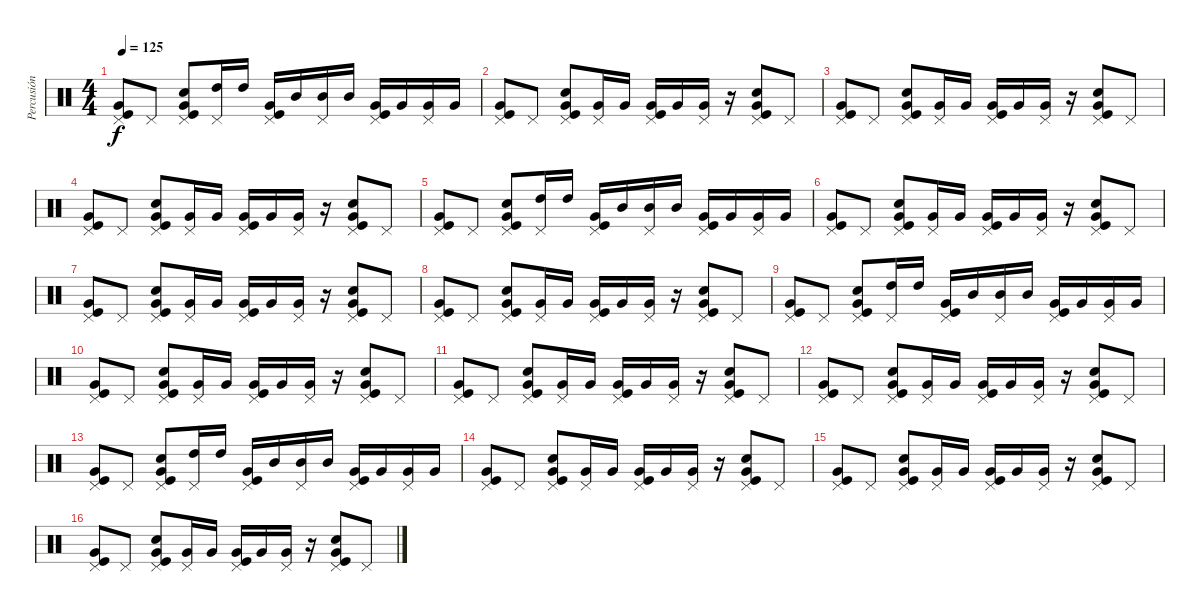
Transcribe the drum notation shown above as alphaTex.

\track ("Percusión" "Percusión") {instrument percussion}
\staff {score}
\articulation defaults
\ts (4 4)
\tempo 125
\clef neutral
\ks c
("Very Low Tom (hit)" "Pedal Hi-Hat (hit)" "Kick (hit)").8{dy f} "Pedal Hi-Hat (hit)".8 ("Very Low Tom (hit)" "Snare (hit) 2" "Pedal Hi-Hat (hit)" "Kick (hit)").8 ("High Tom (hit)" "Pedal Hi-Hat (hit)").16 "High Tom (hit)".16 ("Very Low Tom (hit)" "Pedal Hi-Hat (hit)" "Kick (hit)").16 "Mid Tom (hit)".16 ("Mid Tom (hit)" "Pedal Hi-Hat (hit)").16 "Mid Tom (hit)".16 ("Very Low Tom (hit)" "Pedal Hi-Hat (hit)" "Kick (hit)").16 "Very Low Tom (hit)".16 ("Very Low Tom (hit)" "Pedal Hi-Hat (hit)").16 "Very Low Tom (hit)".16 |
("Very Low Tom (hit)" "Kick (hit)" "Pedal Hi-Hat (hit)").8 "Pedal Hi-Hat (hit)".8 ("Very Low Tom (hit)" "Kick (hit)" "Snare (hit) 2" "Pedal Hi-Hat (hit)").8 ("Very Low Tom (hit)" "Pedal Hi-Hat (hit)").16 "Very Low Tom (hit)".16 ("Very Low Tom (hit)" "Pedal Hi-Hat (hit)" "Kick (hit)").16 "Very Low Tom (hit)".16 ("Very Low Tom (hit)" "Pedal Hi-Hat (hit)").16 r.16 ("Snare (hit) 2" "Very Low Tom (hit)" "Pedal Hi-Hat (hit)" "Kick (hit)").8 "Pedal Hi-Hat (hit)".8 |
("Very Low Tom (hit)" "Kick (hit)" "Pedal Hi-Hat (hit)").8 "Pedal Hi-Hat (hit)".8 ("Very Low Tom (hit)" "Kick (hit)" "Snare (hit) 2" "Pedal Hi-Hat (hit)").8 ("Very Low Tom (hit)" "Pedal Hi-Hat (hit)").16 "Very Low Tom (hit)".16 ("Very Low Tom (hit)" "Pedal Hi-Hat (hit)" "Kick (hit)").16 "Very Low Tom (hit)".16 ("Very Low Tom (hit)" "Pedal Hi-Hat (hit)").16 r.16 ("Snare (hit) 2" "Very Low Tom (hit)" "Pedal Hi-Hat (hit)" "Kick (hit)").8 "Pedal Hi-Hat (hit)".8 |
("Very Low Tom (hit)" "Kick (hit)" "Pedal Hi-Hat (hit)").8 "Pedal Hi-Hat (hit)".8 ("Very Low Tom (hit)" "Kick (hit)" "Snare (hit) 2" "Pedal Hi-Hat (hit)").8 ("Very Low Tom (hit)" "Pedal Hi-Hat (hit)").16 "Very Low Tom (hit)".16 ("Very Low Tom (hit)" "Pedal Hi-Hat (hit)" "Kick (hit)").16 "Very Low Tom (hit)".16 ("Very Low Tom (hit)" "Pedal Hi-Hat (hit)").16 r.16 ("Snare (hit) 2" "Very Low Tom (hit)" "Pedal Hi-Hat (hit)" "Kick (hit)").8 "Pedal Hi-Hat (hit)".8 |
("Very Low Tom (hit)" "Pedal Hi-Hat (hit)" "Kick (hit)").8 "Pedal Hi-Hat (hit)".8 ("Very Low Tom (hit)" "Snare (hit) 2" "Pedal Hi-Hat (hit)" "Kick (hit)").8 ("High Tom (hit)" "Pedal Hi-Hat (hit)").16 "High Tom (hit)".16 ("Very Low Tom (hit)" "Pedal Hi-Hat (hit)" "Kick (hit)").16 "Mid Tom (hit)".16 ("Mid Tom (hit)" "Pedal Hi-Hat (hit)").16 "Mid Tom (hit)".16 ("Very Low Tom (hit)" "Pedal Hi-Hat (hit)" "Kick (hit)").16 "Very Low Tom (hit)".16 ("Very Low Tom (hit)" "Pedal Hi-Hat (hit)").16 "Very Low Tom (hit)".16 |
("Very Low Tom (hit)" "Kick (hit)" "Pedal Hi-Hat (hit)").8 "Pedal Hi-Hat (hit)".8 ("Very Low Tom (hit)" "Kick (hit)" "Snare (hit) 2" "Pedal Hi-Hat (hit)").8 ("Very Low Tom (hit)" "Pedal Hi-Hat (hit)").16 "Very Low Tom (hit)".16 ("Very Low Tom (hit)" "Pedal Hi-Hat (hit)" "Kick (hit)").16 "Very Low Tom (hit)".16 ("Very Low Tom (hit)" "Pedal Hi-Hat (hit)").16 r.16 ("Snare (hit) 2" "Very Low Tom (hit)" "Pedal Hi-Hat (hit)" "Kick (hit)").8 "Pedal Hi-Hat (hit)".8 |
("Very Low Tom (hit)" "Kick (hit)" "Pedal Hi-Hat (hit)").8 "Pedal Hi-Hat (hit)".8 ("Very Low Tom (hit)" "Kick (hit)" "Snare (hit) 2" "Pedal Hi-Hat (hit)").8 ("Very Low Tom (hit)" "Pedal Hi-Hat (hit)").16 "Very Low Tom (hit)".16 ("Very Low Tom (hit)" "Pedal Hi-Hat (hit)" "Kick (hit)").16 "Very Low Tom (hit)".16 ("Very Low Tom (hit)" "Pedal Hi-Hat (hit)").16 r.16 ("Snare (hit) 2" "Very Low Tom (hit)" "Pedal Hi-Hat (hit)" "Kick (hit)").8 "Pedal Hi-Hat (hit)".8 |
("Very Low Tom (hit)" "Kick (hit)" "Pedal Hi-Hat (hit)").8 "Pedal Hi-Hat (hit)".8 ("Very Low Tom (hit)" "Kick (hit)" "Snare (hit) 2" "Pedal Hi-Hat (hit)").8 ("Very Low Tom (hit)" "Pedal Hi-Hat (hit)").16 "Very Low Tom (hit)".16 ("Very Low Tom (hit)" "Pedal Hi-Hat (hit)" "Kick (hit)").16 "Very Low Tom (hit)".16 ("Very Low Tom (hit)" "Pedal Hi-Hat (hit)").16 r.16 ("Snare (hit) 2" "Very Low Tom (hit)" "Pedal Hi-Hat (hit)" "Kick (hit)").8 "Pedal Hi-Hat (hit)".8 |
("Very Low Tom (hit)" "Pedal Hi-Hat (hit)" "Kick (hit)").8 "Pedal Hi-Hat (hit)".8 ("Very Low Tom (hit)" "Snare (hit) 2" "Pedal Hi-Hat (hit)" "Kick (hit)").8 ("High Tom (hit)" "Pedal Hi-Hat (hit)").16 "High Tom (hit)".16 ("Very Low Tom (hit)" "Pedal Hi-Hat (hit)" "Kick (hit)").16 "Mid Tom (hit)".16 ("Mid Tom (hit)" "Pedal Hi-Hat (hit)").16 "Mid Tom (hit)".16 ("Very Low Tom (hit)" "Pedal Hi-Hat (hit)" "Kick (hit)").16 "Very Low Tom (hit)".16 ("Very Low Tom (hit)" "Pedal Hi-Hat (hit)").16 "Very Low Tom (hit)".16 |
("Very Low Tom (hit)" "Kick (hit)" "Pedal Hi-Hat (hit)").8 "Pedal Hi-Hat (hit)".8 ("Very Low Tom (hit)" "Kick (hit)" "Snare (hit) 2" "Pedal Hi-Hat (hit)").8 ("Very Low Tom (hit)" "Pedal Hi-Hat (hit)").16 "Very Low Tom (hit)".16 ("Very Low Tom (hit)" "Pedal Hi-Hat (hit)" "Kick (hit)").16 "Very Low Tom (hit)".16 ("Very Low Tom (hit)" "Pedal Hi-Hat (hit)").16 r.16 ("Snare (hit) 2" "Very Low Tom (hit)" "Pedal Hi-Hat (hit)" "Kick (hit)").8 "Pedal Hi-Hat (hit)".8 |
("Very Low Tom (hit)" "Kick (hit)" "Pedal Hi-Hat (hit)").8 "Pedal Hi-Hat (hit)".8 ("Very Low Tom (hit)" "Kick (hit)" "Snare (hit) 2" "Pedal Hi-Hat (hit)").8 ("Very Low Tom (hit)" "Pedal Hi-Hat (hit)").16 "Very Low Tom (hit)".16 ("Very Low Tom (hit)" "Pedal Hi-Hat (hit)" "Kick (hit)").16 "Very Low Tom (hit)".16 ("Very Low Tom (hit)" "Pedal Hi-Hat (hit)").16 r.16 ("Snare (hit) 2" "Very Low Tom (hit)" "Pedal Hi-Hat (hit)" "Kick (hit)").8 "Pedal Hi-Hat (hit)".8 |
("Very Low Tom (hit)" "Kick (hit)" "Pedal Hi-Hat (hit)").8 "Pedal Hi-Hat (hit)".8 ("Very Low Tom (hit)" "Kick (hit)" "Snare (hit) 2" "Pedal Hi-Hat (hit)").8 ("Very Low Tom (hit)" "Pedal Hi-Hat (hit)").16 "Very Low Tom (hit)".16 ("Very Low Tom (hit)" "Pedal Hi-Hat (hit)" "Kick (hit)").16 "Very Low Tom (hit)".16 ("Very Low Tom (hit)" "Pedal Hi-Hat (hit)").16 r.16 ("Snare (hit) 2" "Very Low Tom (hit)" "Pedal Hi-Hat (hit)" "Kick (hit)").8 "Pedal Hi-Hat (hit)".8 |
("Very Low Tom (hit)" "Pedal Hi-Hat (hit)" "Kick (hit)").8 "Pedal Hi-Hat (hit)".8 ("Very Low Tom (hit)" "Snare (hit) 2" "Pedal Hi-Hat (hit)" "Kick (hit)").8 ("High Tom (hit)" "Pedal Hi-Hat (hit)").16 "High Tom (hit)".16 ("Very Low Tom (hit)" "Pedal Hi-Hat (hit)" "Kick (hit)").16 "Mid Tom (hit)".16 ("Mid Tom (hit)" "Pedal Hi-Hat (hit)").16 "Mid Tom (hit)".16 ("Very Low Tom (hit)" "Pedal Hi-Hat (hit)" "Kick (hit)").16 "Very Low Tom (hit)".16 ("Very Low Tom (hit)" "Pedal Hi-Hat (hit)").16 "Very Low Tom (hit)".16 |
("Very Low Tom (hit)" "Kick (hit)" "Pedal Hi-Hat (hit)").8 "Pedal Hi-Hat (hit)".8 ("Very Low Tom (hit)" "Kick (hit)" "Snare (hit) 2" "Pedal Hi-Hat (hit)").8 ("Very Low Tom (hit)" "Pedal Hi-Hat (hit)").16 "Very Low Tom (hit)".16 ("Very Low Tom (hit)" "Pedal Hi-Hat (hit)" "Kick (hit)").16 "Very Low Tom (hit)".16 ("Very Low Tom (hit)" "Pedal Hi-Hat (hit)").16 r.16 ("Snare (hit) 2" "Very Low Tom (hit)" "Pedal Hi-Hat (hit)" "Kick (hit)").8 "Pedal Hi-Hat (hit)".8 |
("Very Low Tom (hit)" "Kick (hit)" "Pedal Hi-Hat (hit)").8 "Pedal Hi-Hat (hit)".8 ("Very Low Tom (hit)" "Kick (hit)" "Snare (hit) 2" "Pedal Hi-Hat (hit)").8 ("Very Low Tom (hit)" "Pedal Hi-Hat (hit)").16 "Very Low Tom (hit)".16 ("Very Low Tom (hit)" "Pedal Hi-Hat (hit)" "Kick (hit)").16 "Very Low Tom (hit)".16 ("Very Low Tom (hit)" "Pedal Hi-Hat (hit)").16 r.16 ("Snare (hit) 2" "Very Low Tom (hit)" "Pedal Hi-Hat (hit)" "Kick (hit)").8 "Pedal Hi-Hat (hit)".8 |
("Very Low Tom (hit)" "Kick (hit)" "Pedal Hi-Hat (hit)").8 "Pedal Hi-Hat (hit)".8 ("Very Low Tom (hit)" "Kick (hit)" "Snare (hit) 2" "Pedal Hi-Hat (hit)").8 ("Very Low Tom (hit)" "Pedal Hi-Hat (hit)").16 "Very Low Tom (hit)".16 ("Very Low Tom (hit)" "Pedal Hi-Hat (hit)" "Kick (hit)").16 "Very Low Tom (hit)".16 ("Very Low Tom (hit)" "Pedal Hi-Hat (hit)").16 r.16 ("Snare (hit) 2" "Very Low Tom (hit)" "Pedal Hi-Hat (hit)" "Kick (hit)").8 "Pedal Hi-Hat (hit)".8
